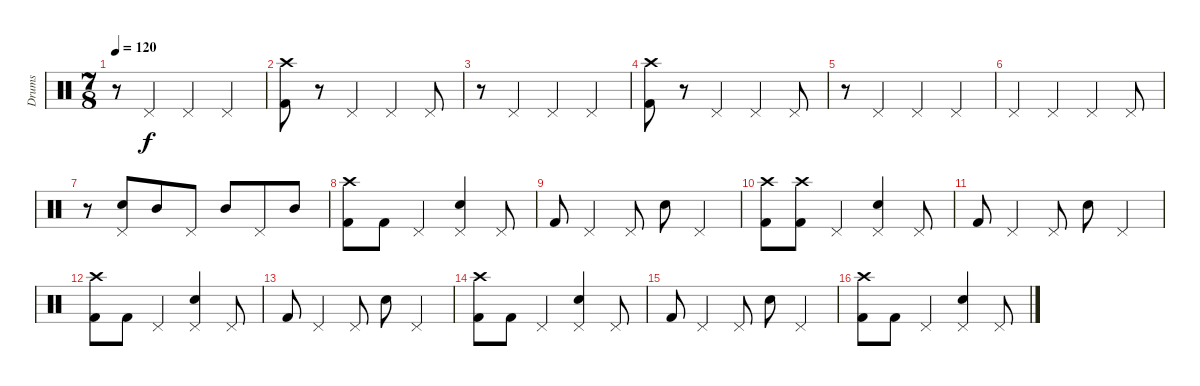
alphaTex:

\track ("Drums" "Drums") {instrument percussion}
\staff {score}
\articulation defaults
\ts (7 8)
\tempo 120
\clef neutral
\ks c
r.8{dy f} "Pedal Hi-Hat (hit)".4 "Pedal Hi-Hat (hit)".4 "Pedal Hi-Hat (hit)".4 |
("Crash high (hit)" "Kick (hit) 2").8 r.8 "Pedal Hi-Hat (hit)".4 "Pedal Hi-Hat (hit)".4 "Pedal Hi-Hat (hit)".8 |
r.8 "Pedal Hi-Hat (hit)".4 "Pedal Hi-Hat (hit)".4 "Pedal Hi-Hat (hit)".4 |
("Crash high (hit)" "Kick (hit) 2").8 r.8 "Pedal Hi-Hat (hit)".4 "Pedal Hi-Hat (hit)".4 "Pedal Hi-Hat (hit)".8 |
r.8 "Pedal Hi-Hat (hit)".4 "Pedal Hi-Hat (hit)".4 "Pedal Hi-Hat (hit)".4 |
"Pedal Hi-Hat (hit)".4 "Pedal Hi-Hat (hit)".4 "Pedal Hi-Hat (hit)".4 "Pedal Hi-Hat (hit)".8 |
r.8 ("Pedal Hi-Hat (hit)" "Electric Snare (hit)").8 "Mid Tom (hit)".8 "Pedal Hi-Hat (hit)".8 "Mid Tom (hit)".8 "Pedal Hi-Hat (hit)".8 "Mid Tom (hit)".8 |
("Crash high (hit)" "Kick (hit) 2").8 "Kick (hit) 2".8 "Pedal Hi-Hat (hit)".4 ("Pedal Hi-Hat (hit)" "Electric Snare (hit)").4 "Pedal Hi-Hat (hit)".8 |
"Kick (hit) 2".8 "Pedal Hi-Hat (hit)".4 "Pedal Hi-Hat (hit)".8 "Electric Snare (hit)".8 "Pedal Hi-Hat (hit)".4 |
("Crash high (hit)" "Kick (hit) 2").8 ("Crash high (hit)" "Kick (hit) 2").8 "Pedal Hi-Hat (hit)".4 ("Pedal Hi-Hat (hit)" "Electric Snare (hit)").4 "Pedal Hi-Hat (hit)".8 |
"Kick (hit) 2".8 "Pedal Hi-Hat (hit)".4 "Pedal Hi-Hat (hit)".8 "Electric Snare (hit)".8 "Pedal Hi-Hat (hit)".4 |
("Crash high (hit)" "Kick (hit) 2").8 "Kick (hit) 2".8 "Pedal Hi-Hat (hit)".4 ("Pedal Hi-Hat (hit)" "Electric Snare (hit)").4 "Pedal Hi-Hat (hit)".8 |
"Kick (hit) 2".8 "Pedal Hi-Hat (hit)".4 "Pedal Hi-Hat (hit)".8 "Electric Snare (hit)".8 "Pedal Hi-Hat (hit)".4 |
("Crash high (hit)" "Kick (hit) 2").8 "Kick (hit) 2".8 "Pedal Hi-Hat (hit)".4 ("Pedal Hi-Hat (hit)" "Electric Snare (hit)").4 "Pedal Hi-Hat (hit)".8 |
"Kick (hit) 2".8 "Pedal Hi-Hat (hit)".4 "Pedal Hi-Hat (hit)".8 "Electric Snare (hit)".8 "Pedal Hi-Hat (hit)".4 |
("Crash high (hit)" "Kick (hit) 2").8 "Kick (hit) 2".8 "Pedal Hi-Hat (hit)".4 ("Pedal Hi-Hat (hit)" "Electric Snare (hit)").4 "Pedal Hi-Hat (hit)".8
